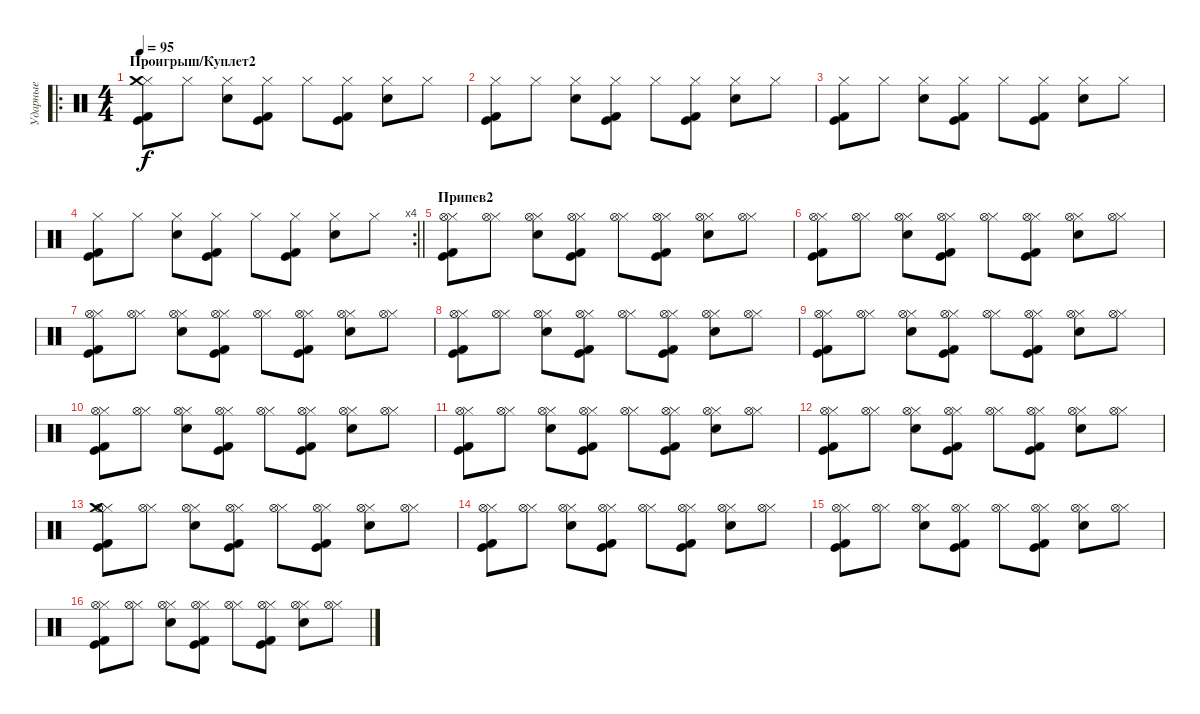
\track ("Ударные" "Ударные") {instrument percussion}
\staff {score}
\articulation defaults
\ro
\ts (4 4)
\section ("" "Проигрыш/Куплет2")
\tempo 95
\clef neutral
\ks c
("Kick (hit) 2" "Hi-Hat (closed)" "Crash medium (hit)" "Kick (hit)").8{dy f} "Hi-Hat (closed)".8 ("Hi-Hat (closed)" "Snare (hit) 2").8 ("Kick (hit) 2" "Hi-Hat (closed)" "Kick (hit)").8 "Hi-Hat (closed)".8 ("Kick (hit) 2" "Hi-Hat (closed)" "Kick (hit)").8 ("Hi-Hat (closed)" "Snare (hit) 2").8 "Hi-Hat (closed)".8 |
("Kick (hit) 2" "Hi-Hat (closed)" "Kick (hit)").8 "Hi-Hat (closed)".8 ("Hi-Hat (closed)" "Snare (hit) 2").8 ("Kick (hit) 2" "Hi-Hat (closed)" "Kick (hit)").8 "Hi-Hat (closed)".8 ("Kick (hit) 2" "Hi-Hat (closed)" "Kick (hit)").8 ("Hi-Hat (closed)" "Snare (hit) 2").8 "Hi-Hat (closed)".8 |
("Kick (hit) 2" "Hi-Hat (closed)" "Kick (hit)").8 "Hi-Hat (closed)".8 ("Hi-Hat (closed)" "Snare (hit) 2").8 ("Kick (hit) 2" "Hi-Hat (closed)" "Kick (hit)").8 "Hi-Hat (closed)".8 ("Kick (hit) 2" "Hi-Hat (closed)" "Kick (hit)").8 ("Hi-Hat (closed)" "Snare (hit) 2").8 "Hi-Hat (closed)".8 |
\rc 4
\barLineRight lightlight
("Kick (hit) 2" "Hi-Hat (closed)" "Kick (hit)").8 "Hi-Hat (closed)".8 ("Hi-Hat (closed)" "Snare (hit) 2").8 ("Kick (hit) 2" "Hi-Hat (closed)" "Kick (hit)").8 "Hi-Hat (closed)".8 ("Kick (hit) 2" "Hi-Hat (closed)" "Kick (hit)").8 ("Hi-Hat (closed)" "Snare (hit) 2").8 "Hi-Hat (closed)".8 |
\section ("" "Припев2")
("Kick (hit) 2" "Hi-Hat (closed)" "Hi-Hat (open)" "Kick (hit)").8 ("Hi-Hat (closed)" "Hi-Hat (open)").8 ("Hi-Hat (closed)" "Snare (hit) 2" "Hi-Hat (open)").8 ("Kick (hit) 2" "Hi-Hat (closed)" "Hi-Hat (open)" "Kick (hit)").8 ("Hi-Hat (closed)" "Hi-Hat (open)").8 ("Kick (hit) 2" "Hi-Hat (closed)" "Hi-Hat (open)" "Kick (hit)").8 ("Hi-Hat (closed)" "Snare (hit) 2" "Hi-Hat (open)").8 ("Hi-Hat (closed)" "Hi-Hat (open)").8 |
("Kick (hit) 2" "Hi-Hat (closed)" "Kick (hit)" "Hi-Hat (open)").8 ("Hi-Hat (closed)" "Hi-Hat (open)").8 ("Hi-Hat (closed)" "Snare (hit) 2" "Hi-Hat (open)").8 ("Kick (hit) 2" "Hi-Hat (closed)" "Kick (hit)" "Hi-Hat (open)").8 ("Hi-Hat (closed)" "Hi-Hat (open)").8 ("Kick (hit) 2" "Hi-Hat (closed)" "Kick (hit)" "Hi-Hat (open)").8 ("Hi-Hat (closed)" "Snare (hit) 2" "Hi-Hat (open)").8 ("Hi-Hat (closed)" "Hi-Hat (open)").8 |
("Kick (hit) 2" "Hi-Hat (closed)" "Kick (hit)" "Hi-Hat (open)").8 ("Hi-Hat (closed)" "Hi-Hat (open)").8 ("Hi-Hat (closed)" "Snare (hit) 2" "Hi-Hat (open)").8 ("Kick (hit) 2" "Hi-Hat (closed)" "Kick (hit)" "Hi-Hat (open)").8 ("Hi-Hat (closed)" "Hi-Hat (open)").8 ("Kick (hit) 2" "Hi-Hat (closed)" "Kick (hit)" "Hi-Hat (open)").8 ("Hi-Hat (closed)" "Snare (hit) 2" "Hi-Hat (open)").8 ("Hi-Hat (closed)" "Hi-Hat (open)").8 |
("Kick (hit) 2" "Hi-Hat (closed)" "Kick (hit)" "Hi-Hat (open)").8 ("Hi-Hat (closed)" "Hi-Hat (open)").8 ("Hi-Hat (closed)" "Snare (hit) 2" "Hi-Hat (open)").8 ("Kick (hit) 2" "Hi-Hat (closed)" "Kick (hit)" "Hi-Hat (open)").8 ("Hi-Hat (closed)" "Hi-Hat (open)").8 ("Kick (hit) 2" "Hi-Hat (closed)" "Kick (hit)" "Hi-Hat (open)").8 ("Hi-Hat (closed)" "Snare (hit) 2" "Hi-Hat (open)").8 ("Hi-Hat (closed)" "Hi-Hat (open)").8 |
("Kick (hit) 2" "Hi-Hat (closed)" "Kick (hit)" "Hi-Hat (open)").8 ("Hi-Hat (closed)" "Hi-Hat (open)").8 ("Hi-Hat (closed)" "Snare (hit) 2" "Hi-Hat (open)").8 ("Kick (hit) 2" "Hi-Hat (closed)" "Kick (hit)" "Hi-Hat (open)").8 ("Hi-Hat (closed)" "Hi-Hat (open)").8 ("Kick (hit) 2" "Hi-Hat (closed)" "Kick (hit)" "Hi-Hat (open)").8 ("Hi-Hat (closed)" "Snare (hit) 2" "Hi-Hat (open)").8 ("Hi-Hat (closed)" "Hi-Hat (open)").8 |
("Kick (hit) 2" "Hi-Hat (closed)" "Kick (hit)" "Hi-Hat (open)").8 ("Hi-Hat (closed)" "Hi-Hat (open)").8 ("Hi-Hat (closed)" "Snare (hit) 2" "Hi-Hat (open)").8 ("Kick (hit) 2" "Hi-Hat (closed)" "Kick (hit)" "Hi-Hat (open)").8 ("Hi-Hat (closed)" "Hi-Hat (open)").8 ("Kick (hit) 2" "Hi-Hat (closed)" "Kick (hit)" "Hi-Hat (open)").8 ("Hi-Hat (closed)" "Snare (hit) 2" "Hi-Hat (open)").8 ("Hi-Hat (closed)" "Hi-Hat (open)").8 |
("Kick (hit) 2" "Hi-Hat (closed)" "Kick (hit)" "Hi-Hat (open)").8 ("Hi-Hat (closed)" "Hi-Hat (open)").8 ("Hi-Hat (closed)" "Snare (hit) 2" "Hi-Hat (open)").8 ("Kick (hit) 2" "Hi-Hat (closed)" "Kick (hit)" "Hi-Hat (open)").8 ("Hi-Hat (closed)" "Hi-Hat (open)").8 ("Kick (hit) 2" "Hi-Hat (closed)" "Kick (hit)" "Hi-Hat (open)").8 ("Hi-Hat (closed)" "Snare (hit) 2" "Hi-Hat (open)").8 ("Hi-Hat (closed)" "Hi-Hat (open)").8 |
("Kick (hit) 2" "Hi-Hat (closed)" "Kick (hit)" "Hi-Hat (open)").8 ("Hi-Hat (closed)" "Hi-Hat (open)").8 ("Hi-Hat (closed)" "Snare (hit) 2" "Hi-Hat (open)").8 ("Kick (hit) 2" "Hi-Hat (closed)" "Kick (hit)" "Hi-Hat (open)").8 ("Hi-Hat (closed)" "Hi-Hat (open)").8 ("Kick (hit) 2" "Hi-Hat (closed)" "Kick (hit)" "Hi-Hat (open)").8 ("Hi-Hat (closed)" "Snare (hit) 2" "Hi-Hat (open)").8 ("Hi-Hat (closed)" "Hi-Hat (open)").8 |
("Kick (hit) 2" "Hi-Hat (closed)" "Kick (hit)" "Crash medium (hit)" "Hi-Hat (open)").8 ("Hi-Hat (closed)" "Hi-Hat (open)").8 ("Hi-Hat (closed)" "Snare (hit) 2" "Hi-Hat (open)").8 ("Kick (hit) 2" "Hi-Hat (closed)" "Kick (hit)" "Hi-Hat (open)").8 ("Hi-Hat (closed)" "Hi-Hat (open)").8 ("Kick (hit) 2" "Hi-Hat (closed)" "Kick (hit)" "Hi-Hat (open)").8 ("Hi-Hat (closed)" "Snare (hit) 2" "Hi-Hat (open)").8 ("Hi-Hat (closed)" "Hi-Hat (open)").8 |
("Kick (hit) 2" "Hi-Hat (closed)" "Kick (hit)" "Hi-Hat (open)").8 ("Hi-Hat (closed)" "Hi-Hat (open)").8 ("Hi-Hat (closed)" "Snare (hit) 2" "Hi-Hat (open)").8 ("Kick (hit) 2" "Hi-Hat (closed)" "Kick (hit)" "Hi-Hat (open)").8 ("Hi-Hat (closed)" "Hi-Hat (open)").8 ("Kick (hit) 2" "Hi-Hat (closed)" "Kick (hit)" "Hi-Hat (open)").8 ("Hi-Hat (closed)" "Snare (hit) 2" "Hi-Hat (open)").8 ("Hi-Hat (closed)" "Hi-Hat (open)").8 |
("Kick (hit) 2" "Hi-Hat (closed)" "Kick (hit)" "Hi-Hat (open)").8 ("Hi-Hat (closed)" "Hi-Hat (open)").8 ("Hi-Hat (closed)" "Snare (hit) 2" "Hi-Hat (open)").8 ("Kick (hit) 2" "Hi-Hat (closed)" "Kick (hit)" "Hi-Hat (open)").8 ("Hi-Hat (closed)" "Hi-Hat (open)").8 ("Kick (hit) 2" "Hi-Hat (closed)" "Kick (hit)" "Hi-Hat (open)").8 ("Hi-Hat (closed)" "Snare (hit) 2" "Hi-Hat (open)").8 ("Hi-Hat (closed)" "Hi-Hat (open)").8 |
("Kick (hit) 2" "Hi-Hat (closed)" "Kick (hit)" "Hi-Hat (open)").8 ("Hi-Hat (closed)" "Hi-Hat (open)").8 ("Hi-Hat (closed)" "Snare (hit) 2" "Hi-Hat (open)").8 ("Kick (hit) 2" "Hi-Hat (closed)" "Kick (hit)" "Hi-Hat (open)").8 ("Hi-Hat (closed)" "Hi-Hat (open)").8 ("Kick (hit) 2" "Hi-Hat (closed)" "Kick (hit)" "Hi-Hat (open)").8 ("Hi-Hat (closed)" "Snare (hit) 2" "Hi-Hat (open)").8 ("Hi-Hat (closed)" "Hi-Hat (open)").8
